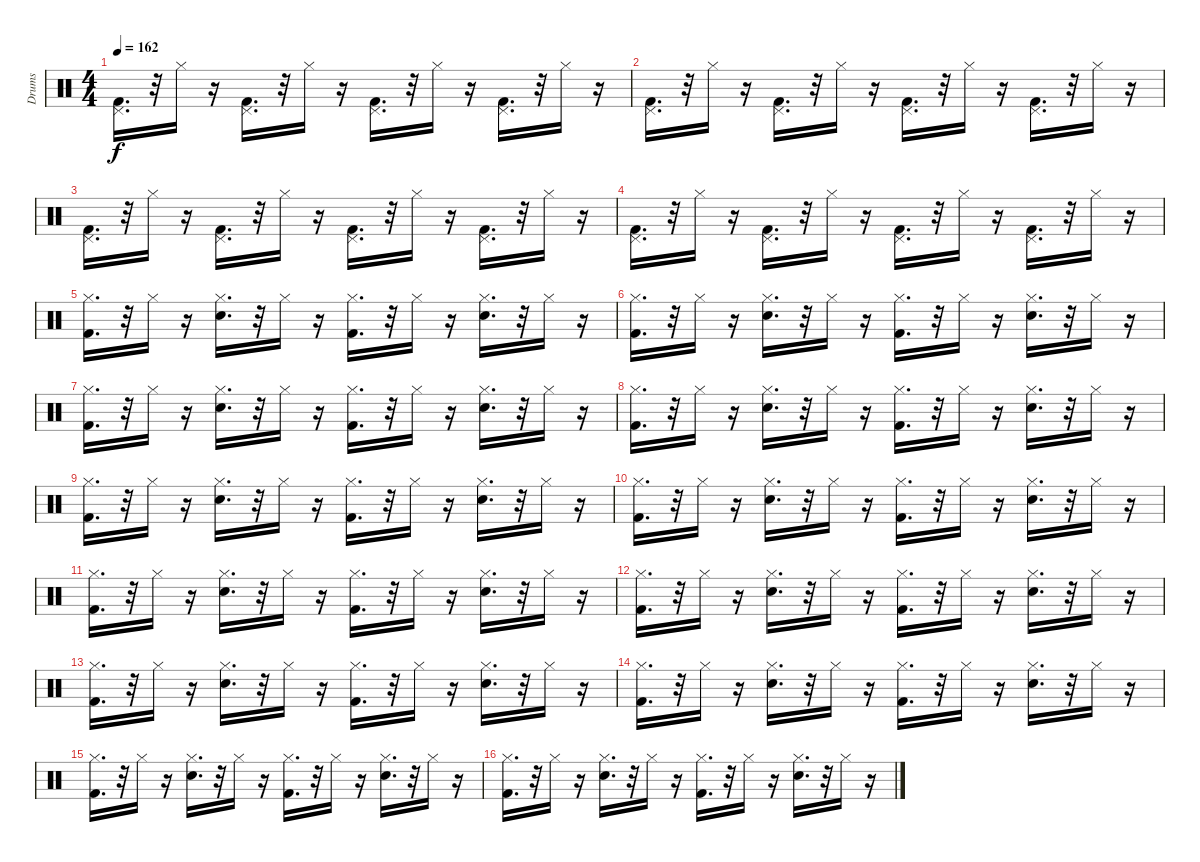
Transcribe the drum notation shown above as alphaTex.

\track ("Drums" "Drums") {instrument percussion}
\staff {score}
\articulation defaults
\ts (4 4)
\tempo 162
\clef neutral
\ks c
("Kick (hit) 2" "Pedal Hi-Hat (hit)").16{d dy f} r.32 "Hi-Hat (closed)".16 r.16 ("Kick (hit) 2" "Pedal Hi-Hat (hit)").16{d} r.32 "Hi-Hat (closed)".16 r.16 ("Kick (hit) 2" "Pedal Hi-Hat (hit)").16{d} r.32 "Hi-Hat (closed)".16 r.16 ("Kick (hit) 2" "Pedal Hi-Hat (hit)").16{d} r.32 "Hi-Hat (closed)".16 r.16 |
("Kick (hit) 2" "Pedal Hi-Hat (hit)").16{d} r.32 "Hi-Hat (closed)".16 r.16 ("Kick (hit) 2" "Pedal Hi-Hat (hit)").16{d} r.32 "Hi-Hat (closed)".16 r.16 ("Kick (hit) 2" "Pedal Hi-Hat (hit)").16{d} r.32 "Hi-Hat (closed)".16 r.16 ("Kick (hit) 2" "Pedal Hi-Hat (hit)").16{d} r.32 "Hi-Hat (closed)".16 r.16 |
("Kick (hit) 2" "Pedal Hi-Hat (hit)").16{d} r.32 "Hi-Hat (closed)".16 r.16 ("Kick (hit) 2" "Pedal Hi-Hat (hit)").16{d} r.32 "Hi-Hat (closed)".16 r.16 ("Kick (hit) 2" "Pedal Hi-Hat (hit)").16{d} r.32 "Hi-Hat (closed)".16 r.16 ("Kick (hit) 2" "Pedal Hi-Hat (hit)").16{d} r.32 "Hi-Hat (closed)".16 r.16 |
("Kick (hit) 2" "Pedal Hi-Hat (hit)").16{d} r.32 "Hi-Hat (closed)".16 r.16 ("Kick (hit) 2" "Pedal Hi-Hat (hit)").16{d} r.32 "Hi-Hat (closed)".16 r.16 ("Kick (hit) 2" "Pedal Hi-Hat (hit)").16{d} r.32 "Hi-Hat (closed)".16 r.16 ("Kick (hit) 2" "Pedal Hi-Hat (hit)").16{d} r.32 "Hi-Hat (closed)".16 r.16 |
("Hi-Hat (closed)" "Kick (hit) 2").16{d} r.32 "Hi-Hat (closed)".16 r.16 ("Hi-Hat (closed)" "Snare (hit) 2").16{d} r.32 "Hi-Hat (closed)".16 r.16 ("Hi-Hat (closed)" "Kick (hit) 2").16{d} r.32 "Hi-Hat (closed)".16 r.16 ("Hi-Hat (closed)" "Snare (hit) 2").16{d} r.32 "Hi-Hat (closed)".16 r.16 |
("Hi-Hat (closed)" "Kick (hit) 2").16{d} r.32 "Hi-Hat (closed)".16 r.16 ("Hi-Hat (closed)" "Snare (hit) 2").16{d} r.32 "Hi-Hat (closed)".16 r.16 ("Hi-Hat (closed)" "Kick (hit) 2").16{d} r.32 "Hi-Hat (closed)".16 r.16 ("Hi-Hat (closed)" "Snare (hit) 2").16{d} r.32 "Hi-Hat (closed)".16 r.16 |
("Hi-Hat (closed)" "Kick (hit) 2").16{d} r.32 "Hi-Hat (closed)".16 r.16 ("Hi-Hat (closed)" "Snare (hit) 2").16{d} r.32 "Hi-Hat (closed)".16 r.16 ("Hi-Hat (closed)" "Kick (hit) 2").16{d} r.32 "Hi-Hat (closed)".16 r.16 ("Hi-Hat (closed)" "Snare (hit) 2").16{d} r.32 "Hi-Hat (closed)".16 r.16 |
("Hi-Hat (closed)" "Kick (hit) 2").16{d} r.32 "Hi-Hat (closed)".16 r.16 ("Hi-Hat (closed)" "Snare (hit) 2").16{d} r.32 "Hi-Hat (closed)".16 r.16 ("Hi-Hat (closed)" "Kick (hit) 2").16{d} r.32 "Hi-Hat (closed)".16 r.16 ("Hi-Hat (closed)" "Snare (hit) 2").16{d} r.32 "Hi-Hat (closed)".16 r.16 |
("Hi-Hat (closed)" "Kick (hit) 2").16{d} r.32 "Hi-Hat (closed)".16 r.16 ("Hi-Hat (closed)" "Snare (hit) 2").16{d} r.32 "Hi-Hat (closed)".16 r.16 ("Hi-Hat (closed)" "Kick (hit) 2").16{d} r.32 "Hi-Hat (closed)".16 r.16 ("Hi-Hat (closed)" "Snare (hit) 2").16{d} r.32 "Hi-Hat (closed)".16 r.16 |
("Hi-Hat (closed)" "Kick (hit) 2").16{d} r.32 "Hi-Hat (closed)".16 r.16 ("Hi-Hat (closed)" "Snare (hit) 2").16{d} r.32 "Hi-Hat (closed)".16 r.16 ("Hi-Hat (closed)" "Kick (hit) 2").16{d} r.32 "Hi-Hat (closed)".16 r.16 ("Hi-Hat (closed)" "Snare (hit) 2").16{d} r.32 "Hi-Hat (closed)".16 r.16 |
("Hi-Hat (closed)" "Kick (hit) 2").16{d} r.32 "Hi-Hat (closed)".16 r.16 ("Hi-Hat (closed)" "Snare (hit) 2").16{d} r.32 "Hi-Hat (closed)".16 r.16 ("Hi-Hat (closed)" "Kick (hit) 2").16{d} r.32 "Hi-Hat (closed)".16 r.16 ("Hi-Hat (closed)" "Snare (hit) 2").16{d} r.32 "Hi-Hat (closed)".16 r.16 |
("Hi-Hat (closed)" "Kick (hit) 2").16{d} r.32 "Hi-Hat (closed)".16 r.16 ("Hi-Hat (closed)" "Snare (hit) 2").16{d} r.32 "Hi-Hat (closed)".16 r.16 ("Hi-Hat (closed)" "Kick (hit) 2").16{d} r.32 "Hi-Hat (closed)".16 r.16 ("Hi-Hat (closed)" "Snare (hit) 2").16{d} r.32 "Hi-Hat (closed)".16 r.16 |
("Hi-Hat (closed)" "Kick (hit) 2").16{d} r.32 "Hi-Hat (closed)".16 r.16 ("Hi-Hat (closed)" "Snare (hit) 2").16{d} r.32 "Hi-Hat (closed)".16 r.16 ("Hi-Hat (closed)" "Kick (hit) 2").16{d} r.32 "Hi-Hat (closed)".16 r.16 ("Hi-Hat (closed)" "Snare (hit) 2").16{d} r.32 "Hi-Hat (closed)".16 r.16 |
("Hi-Hat (closed)" "Kick (hit) 2").16{d} r.32 "Hi-Hat (closed)".16 r.16 ("Hi-Hat (closed)" "Snare (hit) 2").16{d} r.32 "Hi-Hat (closed)".16 r.16 ("Hi-Hat (closed)" "Kick (hit) 2").16{d} r.32 "Hi-Hat (closed)".16 r.16 ("Hi-Hat (closed)" "Snare (hit) 2").16{d} r.32 "Hi-Hat (closed)".16 r.16 |
("Hi-Hat (closed)" "Kick (hit) 2").16{d} r.32 "Hi-Hat (closed)".16 r.16 ("Hi-Hat (closed)" "Snare (hit) 2").16{d} r.32 "Hi-Hat (closed)".16 r.16 ("Hi-Hat (closed)" "Kick (hit) 2").16{d} r.32 "Hi-Hat (closed)".16 r.16 ("Hi-Hat (closed)" "Snare (hit) 2").16{d} r.32 "Hi-Hat (closed)".16 r.16 |
("Hi-Hat (closed)" "Kick (hit) 2").16{d} r.32 "Hi-Hat (closed)".16 r.16 ("Hi-Hat (closed)" "Snare (hit) 2").16{d} r.32 "Hi-Hat (closed)".16 r.16 ("Hi-Hat (closed)" "Kick (hit) 2").16{d} r.32 "Hi-Hat (closed)".16 r.16 ("Hi-Hat (closed)" "Snare (hit) 2").16{d} r.32 "Hi-Hat (closed)".16 r.16
